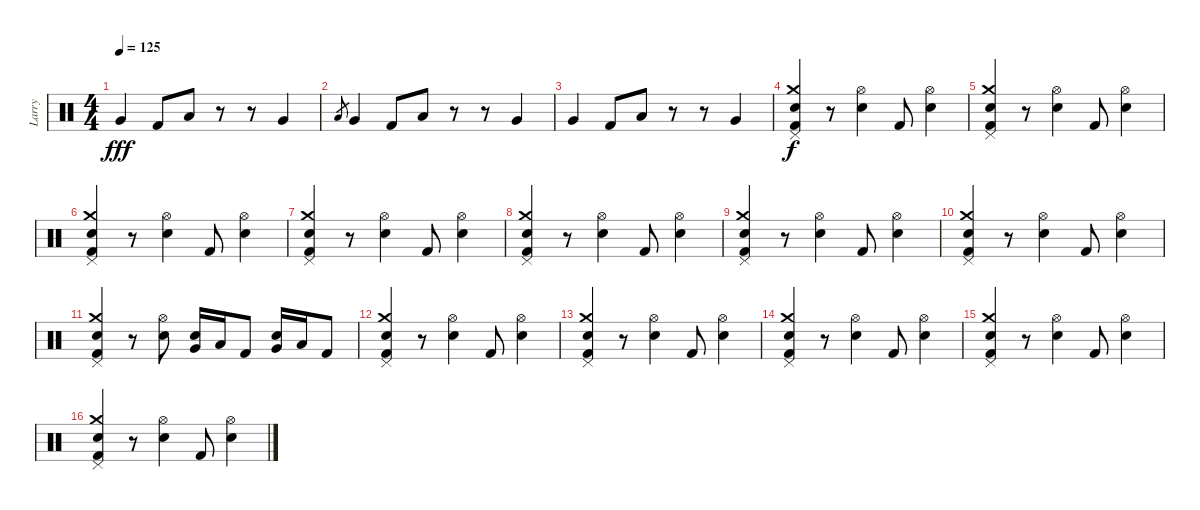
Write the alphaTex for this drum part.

\track ("Larry" "Larry") {instrument percussion}
\staff {score}
\articulation defaults
\ts (4 4)
\tempo 125
\clef neutral
\ks c "Very Low Tom (hit)".4{dy fff volume 16} "Kick (hit) 2".8 "Low Tom (hit)".8
r.8 r.8 "Very Low Tom (hit)".4 |
"Low Tom (hit)".8{gr} "Very Low Tom (hit)".4{volume 16} "Kick (hit) 2".8 "Low Tom (hit)".8 r.8 r.8 "Very Low Tom (hit)".4 |
"Very Low Tom (hit)".4{volume 16} "Kick (hit) 2".8 "Low Tom (hit)".8 r.8 r.8 "Very Low Tom (hit)".4 |
("Crash medium (hit)" "Electric Snare (hit)" "Kick (hit) 2" "Pedal Hi-Hat (hit)").4{dy f} r.8 ("Hi-Hat (open)" "Electric Snare (hit)").4 "Kick (hit) 2".8 ("Hi-Hat (open)" "Electric Snare (hit)").4 |
("Crash medium (hit)" "Electric Snare (hit)" "Kick (hit) 2" "Pedal Hi-Hat (hit)").4 r.8 ("Hi-Hat (open)" "Electric Snare (hit)").4 "Kick (hit) 2".8 ("Hi-Hat (open)" "Electric Snare (hit)").4 |
("Crash medium (hit)" "Electric Snare (hit)" "Kick (hit) 2" "Pedal Hi-Hat (hit)").4 r.8 ("Hi-Hat (open)" "Electric Snare (hit)").4 "Kick (hit) 2".8 ("Hi-Hat (open)" "Electric Snare (hit)").4 |
("Crash medium (hit)" "Electric Snare (hit)" "Kick (hit) 2" "Pedal Hi-Hat (hit)").4 r.8 ("Hi-Hat (open)" "Electric Snare (hit)").4 "Kick (hit) 2".8 ("Hi-Hat (open)" "Electric Snare (hit)").4 |
("Crash medium (hit)" "Electric Snare (hit)" "Kick (hit) 2" "Pedal Hi-Hat (hit)").4 r.8 ("Hi-Hat (open)" "Electric Snare (hit)").4 "Kick (hit) 2".8 ("Hi-Hat (open)" "Electric Snare (hit)").4 |
("Crash medium (hit)" "Electric Snare (hit)" "Kick (hit) 2" "Pedal Hi-Hat (hit)").4 r.8 ("Hi-Hat (open)" "Electric Snare (hit)").4 "Kick (hit) 2".8 ("Hi-Hat (open)" "Electric Snare (hit)").4 |
("Crash medium (hit)" "Electric Snare (hit)" "Kick (hit) 2" "Pedal Hi-Hat (hit)").4 r.8 ("Hi-Hat (open)" "Electric Snare (hit)").4 "Kick (hit) 2".8 ("Hi-Hat (open)" "Electric Snare (hit)").4 |
("Crash medium (hit)" "Electric Snare (hit)" "Kick (hit) 2" "Pedal Hi-Hat (hit)").4 r.8 ("Hi-Hat (open)" "Electric Snare (hit)").8 ("Very Low Tom (hit)" "Electric Snare (hit)").16 "Low Tom (hit)".16 "Kick (hit) 2".8 ("Very Low Tom (hit)" "Electric Snare (hit)").16 "Low Tom (hit)".16 "Kick (hit) 2".8 |
("Crash medium (hit)" "Electric Snare (hit)" "Kick (hit) 2" "Pedal Hi-Hat (hit)").4 r.8 ("Hi-Hat (open)" "Electric Snare (hit)").4 "Kick (hit) 2".8 ("Hi-Hat (open)" "Electric Snare (hit)").4 |
("Crash medium (hit)" "Electric Snare (hit)" "Kick (hit) 2" "Pedal Hi-Hat (hit)").4 r.8 ("Hi-Hat (open)" "Electric Snare (hit)").4 "Kick (hit) 2".8 ("Hi-Hat (open)" "Electric Snare (hit)").4 |
("Crash medium (hit)" "Electric Snare (hit)" "Kick (hit) 2" "Pedal Hi-Hat (hit)").4 r.8 ("Hi-Hat (open)" "Electric Snare (hit)").4 "Kick (hit) 2".8 ("Hi-Hat (open)" "Electric Snare (hit)").4 |
("Crash medium (hit)" "Electric Snare (hit)" "Kick (hit) 2" "Pedal Hi-Hat (hit)").4 r.8 ("Hi-Hat (open)" "Electric Snare (hit)").4 "Kick (hit) 2".8 ("Hi-Hat (open)" "Electric Snare (hit)").4 |
("Crash medium (hit)" "Electric Snare (hit)" "Kick (hit) 2" "Pedal Hi-Hat (hit)").4 r.8 ("Hi-Hat (open)" "Electric Snare (hit)").4 "Kick (hit) 2".8 ("Hi-Hat (open)" "Electric Snare (hit)").4
